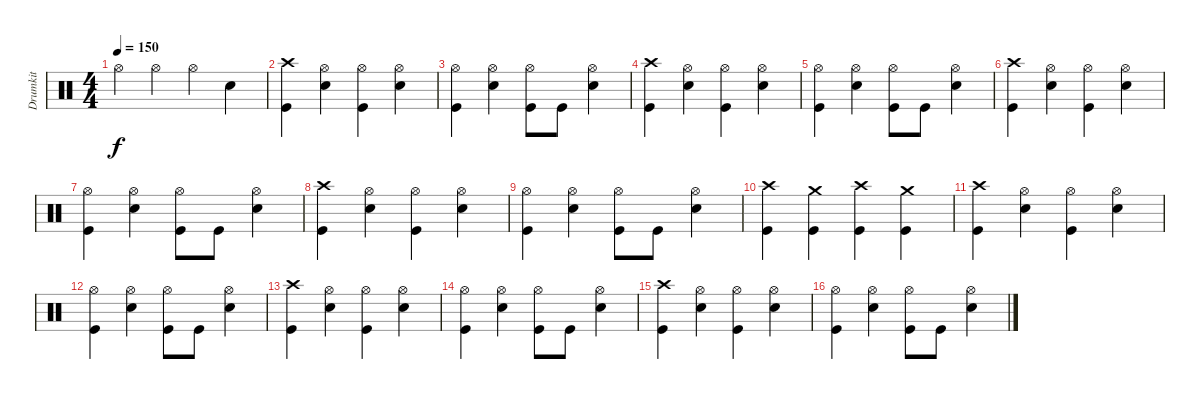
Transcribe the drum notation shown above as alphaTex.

\track ("Drumkit" "Drumkit") {instrument percussion}
\staff {score}
\articulation defaults
\ts (4 4)
\tempo 150
\clef neutral
\ks c "Hi-Hat (open)".4{dy f} "Hi-Hat (open)".4 "Hi-Hat (open)".4 "Snare (hit) 2".4
|
("Crash high (hit)" "Kick (hit)").4 ("Hi-Hat (open)" "Snare (hit) 2").4 ("Hi-Hat (open)" "Kick (hit)").4 ("Hi-Hat (open)" "Snare (hit) 2").4 |
("Hi-Hat (open)" "Kick (hit)").4 ("Hi-Hat (open)" "Snare (hit) 2").4 ("Hi-Hat (open)" "Kick (hit)").8 "Kick (hit)".8 ("Hi-Hat (open)" "Snare (hit) 2").4 |
("Crash high (hit)" "Kick (hit)").4 ("Hi-Hat (open)" "Snare (hit) 2").4 ("Hi-Hat (open)" "Kick (hit)").4 ("Hi-Hat (open)" "Snare (hit) 2").4 |
("Hi-Hat (open)" "Kick (hit)").4 ("Hi-Hat (open)" "Snare (hit) 2").4 ("Hi-Hat (open)" "Kick (hit)").8 "Kick (hit)".8 ("Hi-Hat (open)" "Snare (hit) 2").4 |
("Crash high (hit)" "Kick (hit)").4 ("Hi-Hat (open)" "Snare (hit) 2").4 ("Hi-Hat (open)" "Kick (hit)").4 ("Hi-Hat (open)" "Snare (hit) 2").4 |
("Hi-Hat (open)" "Kick (hit)").4 ("Hi-Hat (open)" "Snare (hit) 2").4 ("Hi-Hat (open)" "Kick (hit)").8 "Kick (hit)".8 ("Hi-Hat (open)" "Snare (hit) 2").4 |
("Crash high (hit)" "Kick (hit)").4 ("Hi-Hat (open)" "Snare (hit) 2").4 ("Hi-Hat (open)" "Kick (hit)").4 ("Hi-Hat (open)" "Snare (hit) 2").4 |
("Hi-Hat (open)" "Kick (hit)").4 ("Hi-Hat (open)" "Snare (hit) 2").4 ("Hi-Hat (open)" "Kick (hit)").8 "Kick (hit)".8 ("Hi-Hat (open)" "Snare (hit) 2").4 |
("Crash high (hit)" "Kick (hit)").4 ("Crash medium (hit)" "Kick (hit)").4 ("Crash high (hit)" "Kick (hit)").4 ("Crash medium (hit)" "Kick (hit)").4 |
("Crash high (hit)" "Kick (hit)").4 ("Hi-Hat (open)" "Snare (hit) 2").4 ("Hi-Hat (open)" "Kick (hit)").4 ("Hi-Hat (open)" "Snare (hit) 2").4 |
("Hi-Hat (open)" "Kick (hit)").4 ("Hi-Hat (open)" "Snare (hit) 2").4 ("Hi-Hat (open)" "Kick (hit)").8 "Kick (hit)".8 ("Hi-Hat (open)" "Snare (hit) 2").4 |
("Crash high (hit)" "Kick (hit)").4 ("Hi-Hat (open)" "Snare (hit) 2").4 ("Hi-Hat (open)" "Kick (hit)").4 ("Hi-Hat (open)" "Snare (hit) 2").4 |
("Hi-Hat (open)" "Kick (hit)").4 ("Hi-Hat (open)" "Snare (hit) 2").4 ("Hi-Hat (open)" "Kick (hit)").8 "Kick (hit)".8 ("Hi-Hat (open)" "Snare (hit) 2").4 |
("Crash high (hit)" "Kick (hit)").4 ("Hi-Hat (open)" "Snare (hit) 2").4 ("Hi-Hat (open)" "Kick (hit)").4 ("Hi-Hat (open)" "Snare (hit) 2").4 |
("Hi-Hat (open)" "Kick (hit)").4 ("Hi-Hat (open)" "Snare (hit) 2").4 ("Hi-Hat (open)" "Kick (hit)").8 "Kick (hit)".8 ("Hi-Hat (open)" "Snare (hit) 2").4
